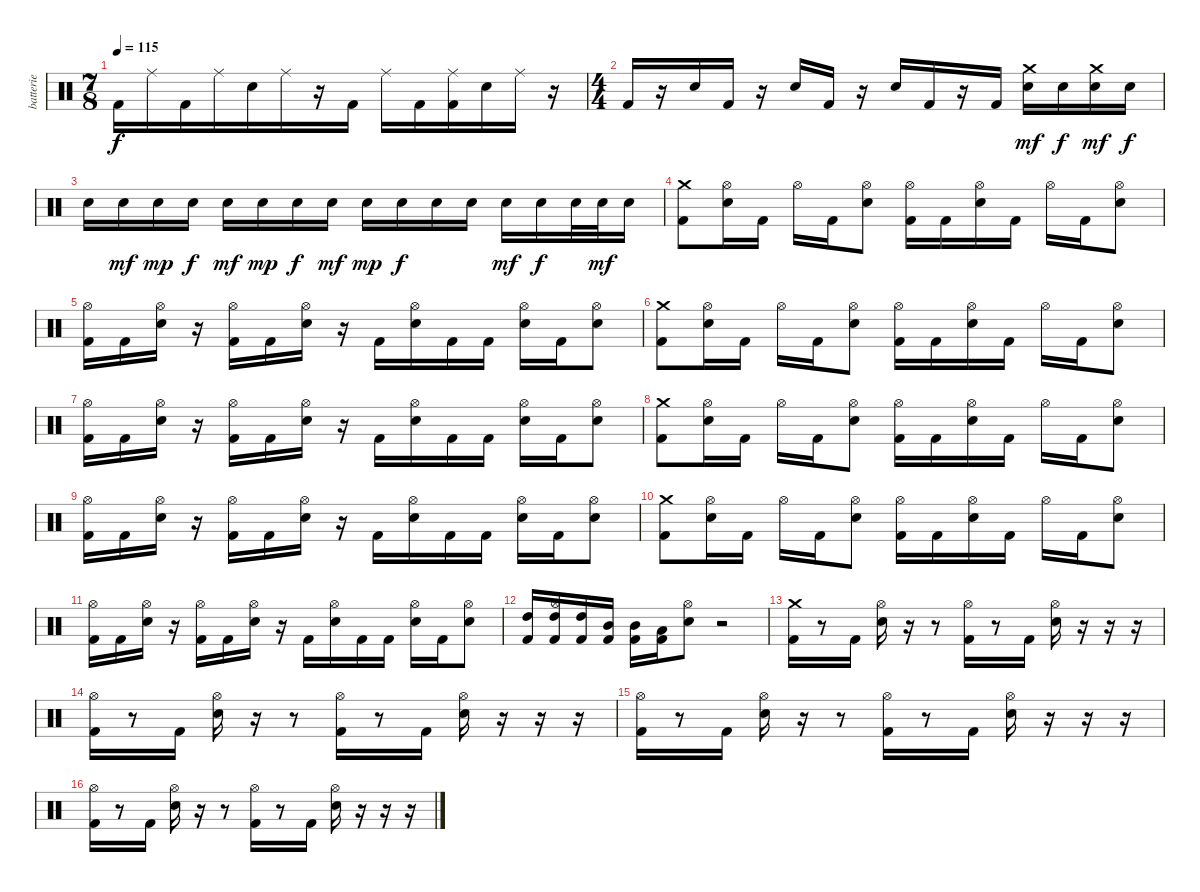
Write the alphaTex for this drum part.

\track ("batterie" "batterie") {instrument percussion}
\staff {score}
\articulation defaults
\ts (7 8)
\tempo 115
\clef neutral
\ks c "Kick (hit) 2".16{dy f} "Ride (middle)".16 "Kick (hit) 2".16 "Ride (middle)".16 "Electric Snare (hit)".16 "Ride (middle)".16
r.16 "Kick (hit) 2".16 "Ride (middle)".16 "Kick (hit) 2".16 ("Kick (hit) 2" "Ride (middle)").16 "Electric Snare (hit)".16 "Ride (middle)".16 r.16 |
\ts (4 4)
"Kick (hit) 2".16 r.16 "Electric Snare (hit)".16 "Kick (hit) 2".16 r.16 "Electric Snare (hit)".16 "Kick (hit) 2".16 r.16 "Electric Snare (hit)".16 "Kick (hit) 2".16 r.16 "Kick (hit) 2".16 ("Crash medium (hit)" "Electric Snare (hit)").16{dy mf} "Electric Snare (hit)".16{dy f} ("Crash medium (hit)" "Electric Snare (hit)").16{dy mf} "Electric Snare (hit)".16{dy f} |
"Electric Snare (hit)".16 "Electric Snare (hit)".16{dy mf} "Electric Snare (hit)".16{dy mp} "Electric Snare (hit)".16{dy f} "Electric Snare (hit)".16{dy mf} "Electric Snare (hit)".16{dy mp} "Electric Snare (hit)".16{dy f} "Electric Snare (hit)".16{dy mf} "Electric Snare (hit)".16{dy mp} "Electric Snare (hit)".16{dy f} "Electric Snare (hit)".16 "Electric Snare (hit)".16 "Electric Snare (hit)".16{dy mf} "Electric Snare (hit)".16{dy f} "Electric Snare (hit)".32 "Electric Snare (hit)".32{dy mf} "Electric Snare (hit)".16 |
("Crash medium (hit)" "Kick (hit) 2").8 ("Hi-Hat (open)" "Electric Snare (hit)").16 "Kick (hit) 2".16 "Hi-Hat (open)".16 "Kick (hit) 2".16 ("Hi-Hat (open)" "Electric Snare (hit)").8 ("Hi-Hat (open)" "Kick (hit) 2").16 "Kick (hit) 2".16 ("Hi-Hat (open)" "Electric Snare (hit)").16 "Kick (hit) 2".16 "Hi-Hat (open)".16 "Kick (hit) 2".16 ("Hi-Hat (open)" "Electric Snare (hit)").8 |
("Hi-Hat (open)" "Kick (hit) 2").16 "Kick (hit) 2".16 ("Hi-Hat (open)" "Electric Snare (hit)").16 r.16 ("Hi-Hat (open)" "Kick (hit) 2").16 "Kick (hit) 2".16 ("Hi-Hat (open)" "Electric Snare (hit)").16 r.16 "Kick (hit) 2".16 ("Hi-Hat (open)" "Electric Snare (hit)").16 "Kick (hit) 2".16 "Kick (hit) 2".16 ("Hi-Hat (open)" "Electric Snare (hit)").16 "Kick (hit) 2".16 ("Hi-Hat (open)" "Electric Snare (hit)").8 |
("Crash medium (hit)" "Kick (hit) 2").8 ("Hi-Hat (open)" "Electric Snare (hit)").16 "Kick (hit) 2".16 "Hi-Hat (open)".16 "Kick (hit) 2".16 ("Hi-Hat (open)" "Electric Snare (hit)").8 ("Hi-Hat (open)" "Kick (hit) 2").16 "Kick (hit) 2".16 ("Hi-Hat (open)" "Electric Snare (hit)").16 "Kick (hit) 2".16 "Hi-Hat (open)".16 "Kick (hit) 2".16 ("Hi-Hat (open)" "Electric Snare (hit)").8 |
("Hi-Hat (open)" "Kick (hit) 2").16 "Kick (hit) 2".16 ("Hi-Hat (open)" "Electric Snare (hit)").16 r.16 ("Hi-Hat (open)" "Kick (hit) 2").16 "Kick (hit) 2".16 ("Hi-Hat (open)" "Electric Snare (hit)").16 r.16 "Kick (hit) 2".16 ("Hi-Hat (open)" "Electric Snare (hit)").16 "Kick (hit) 2".16 "Kick (hit) 2".16 ("Hi-Hat (open)" "Electric Snare (hit)").16 "Kick (hit) 2".16 ("Hi-Hat (open)" "Electric Snare (hit)").8 |
("Crash medium (hit)" "Kick (hit) 2").8 ("Hi-Hat (open)" "Electric Snare (hit)").16 "Kick (hit) 2".16 "Hi-Hat (open)".16 "Kick (hit) 2".16 ("Hi-Hat (open)" "Electric Snare (hit)").8 ("Hi-Hat (open)" "Kick (hit) 2").16 "Kick (hit) 2".16 ("Hi-Hat (open)" "Electric Snare (hit)").16 "Kick (hit) 2".16 "Hi-Hat (open)".16 "Kick (hit) 2".16 ("Hi-Hat (open)" "Electric Snare (hit)").8 |
("Hi-Hat (open)" "Kick (hit) 2").16 "Kick (hit) 2".16 ("Hi-Hat (open)" "Electric Snare (hit)").16 r.16 ("Hi-Hat (open)" "Kick (hit) 2").16 "Kick (hit) 2".16 ("Hi-Hat (open)" "Electric Snare (hit)").16 r.16 "Kick (hit) 2".16 ("Hi-Hat (open)" "Electric Snare (hit)").16 "Kick (hit) 2".16 "Kick (hit) 2".16 ("Hi-Hat (open)" "Electric Snare (hit)").16 "Kick (hit) 2".16 ("Hi-Hat (open)" "Electric Snare (hit)").8 |
("Crash medium (hit)" "Kick (hit) 2").8 ("Hi-Hat (open)" "Electric Snare (hit)").16 "Kick (hit) 2".16 "Hi-Hat (open)".16 "Kick (hit) 2".16 ("Hi-Hat (open)" "Electric Snare (hit)").8 ("Hi-Hat (open)" "Kick (hit) 2").16 "Kick (hit) 2".16 ("Hi-Hat (open)" "Electric Snare (hit)").16 "Kick (hit) 2".16 "Hi-Hat (open)".16 "Kick (hit) 2".16 ("Hi-Hat (open)" "Electric Snare (hit)").8 |
("Hi-Hat (open)" "Kick (hit) 2").16 "Kick (hit) 2".16 ("Hi-Hat (open)" "Electric Snare (hit)").16 r.16 ("Hi-Hat (open)" "Kick (hit) 2").16 "Kick (hit) 2".16 ("Hi-Hat (open)" "Electric Snare (hit)").16 r.16 "Kick (hit) 2".16 ("Hi-Hat (open)" "Electric Snare (hit)").16 "Kick (hit) 2".16 "Kick (hit) 2".16 ("Hi-Hat (open)" "Electric Snare (hit)").16 "Kick (hit) 2".16 ("Hi-Hat (open)" "Electric Snare (hit)").8 |
("High Tom (hit)" "Kick (hit) 2").16 ("High Tom (hit)" "Hi-Hat (open)" "Kick (hit) 2").16 ("High Tom (hit)" "Kick (hit) 2").16 ("Mid Tom (hit)" "Kick (hit) 2").16 ("Mid Tom (hit)" "Kick (hit) 2").16 ("Low Tom (hit)" "Kick (hit) 2").16 ("Hi-Hat (open)" "Electric Snare (hit)").8 r.2 |
("Crash medium (hit)" "Kick (hit) 2").16 r.8 "Kick (hit) 2".16 ("Hi-Hat (open)" "Electric Snare (hit)").16 r.16 r.8 ("Hi-Hat (open)" "Kick (hit) 2").16 r.8 "Kick (hit) 2".16 ("Hi-Hat (open)" "Electric Snare (hit)").16 r.16 r.16 r.16 |
("Hi-Hat (open)" "Kick (hit) 2").16 r.8 "Kick (hit) 2".16 ("Hi-Hat (open)" "Electric Snare (hit)").16 r.16 r.8 ("Hi-Hat (open)" "Kick (hit) 2").16 r.8 "Kick (hit) 2".16 ("Hi-Hat (open)" "Electric Snare (hit)").16 r.16 r.16 r.16 |
("Hi-Hat (open)" "Kick (hit) 2").16 r.8 "Kick (hit) 2".16 ("Hi-Hat (open)" "Electric Snare (hit)").16 r.16 r.8 ("Hi-Hat (open)" "Kick (hit) 2").16 r.8 "Kick (hit) 2".16 ("Hi-Hat (open)" "Electric Snare (hit)").16 r.16 r.16 r.16 |
("Hi-Hat (open)" "Kick (hit) 2").16 r.8 "Kick (hit) 2".16 ("Hi-Hat (open)" "Electric Snare (hit)").16 r.16 r.8 ("Hi-Hat (open)" "Kick (hit) 2").16 r.8 "Kick (hit) 2".16 ("Hi-Hat (open)" "Electric Snare (hit)").16 r.16 r.16 r.16
